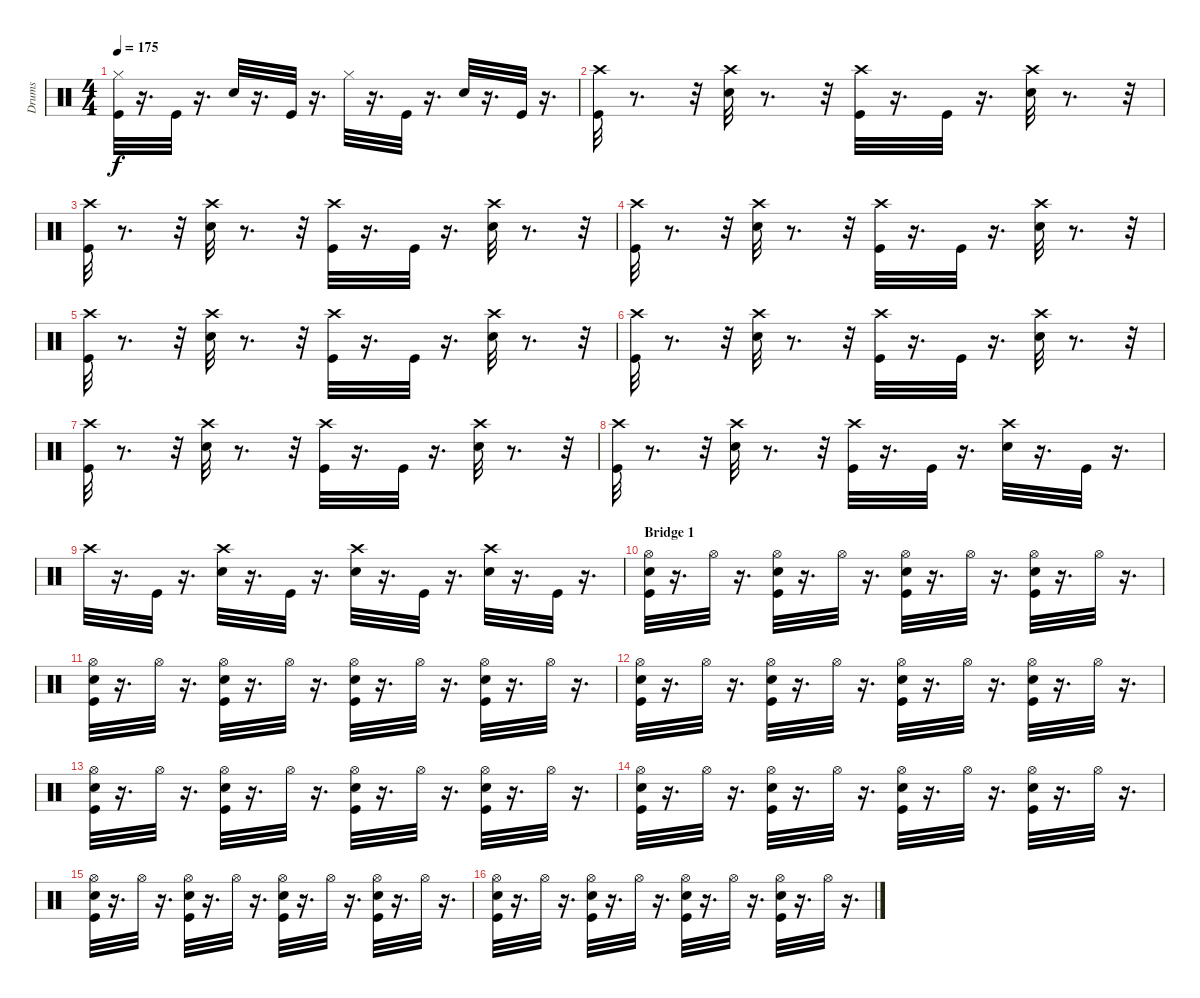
\track ("Drums" "Drums") {instrument percussion}
\staff {score}
\articulation defaults
\ts (4 4)
\tempo 175
\clef neutral
\ks c
("Hi-Hat (closed)" "Kick (hit)").32{dy f} r.16{d} "Kick (hit)".32 r.16{d} "Electric Snare (hit)".32 r.16{d} "Kick (hit)".32 r.16{d} "Hi-Hat (closed)".32 r.16{d} "Kick (hit)".32 r.16{d} "Electric Snare (hit)".32 r.16{d} "Kick (hit)".32 r.16{d} |
("Crash high (hit)" "Kick (hit)").32 r.8{d} r.32 ("Crash high (hit)" "Electric Snare (hit)").32 r.8{d} r.32 ("Crash high (hit)" "Kick (hit)").32 r.16{d} "Kick (hit)".32 r.16{d} ("Crash high (hit)" "Electric Snare (hit)").32 r.8{d} r.32 |
("Crash high (hit)" "Kick (hit)").32 r.8{d} r.32 ("Crash high (hit)" "Electric Snare (hit)").32 r.8{d} r.32 ("Crash high (hit)" "Kick (hit)").32 r.16{d} "Kick (hit)".32 r.16{d} ("Crash high (hit)" "Electric Snare (hit)").32 r.8{d} r.32 |
("Crash high (hit)" "Kick (hit)").32 r.8{d} r.32 ("Crash high (hit)" "Electric Snare (hit)").32 r.8{d} r.32 ("Crash high (hit)" "Kick (hit)").32 r.16{d} "Kick (hit)".32 r.16{d} ("Crash high (hit)" "Electric Snare (hit)").32 r.8{d} r.32 |
("Crash high (hit)" "Kick (hit)").32 r.8{d} r.32 ("Crash high (hit)" "Electric Snare (hit)").32 r.8{d} r.32 ("Crash high (hit)" "Kick (hit)").32 r.16{d} "Kick (hit)".32 r.16{d} ("Crash high (hit)" "Electric Snare (hit)").32 r.8{d} r.32 |
("Crash high (hit)" "Kick (hit)").32 r.8{d} r.32 ("Crash high (hit)" "Electric Snare (hit)").32 r.8{d} r.32 ("Crash high (hit)" "Kick (hit)").32 r.16{d} "Kick (hit)".32 r.16{d} ("Crash high (hit)" "Electric Snare (hit)").32 r.8{d} r.32 |
("Crash high (hit)" "Kick (hit)").32 r.8{d} r.32 ("Crash high (hit)" "Electric Snare (hit)").32 r.8{d} r.32 ("Crash high (hit)" "Kick (hit)").32 r.16{d} "Kick (hit)".32 r.16{d} ("Crash high (hit)" "Electric Snare (hit)").32 r.8{d} r.32 |
("Crash high (hit)" "Kick (hit)").32 r.8{d} r.32 ("Electric Snare (hit)" "Crash high (hit)").32 r.8{d} r.32 ("Kick (hit)" "Crash high (hit)").32 r.16{d} "Kick (hit)".32 r.16{d} ("Electric Snare (hit)" "Crash high (hit)").32 r.16{d} "Kick (hit)".32 r.16{d} |
"Crash high (hit)".32 r.16{d} "Kick (hit)".32 r.16{d} ("Crash high (hit)" "Electric Snare (hit)").32 r.16{d} "Kick (hit)".32 r.16{d} ("Crash high (hit)" "Electric Snare (hit)").32 r.16{d} "Kick (hit)".32 r.16{d} ("Crash high (hit)" "Electric Snare (hit)").32 r.16{d} "Kick (hit)".32 r.16{d} |
\section ("" "Bridge 1")
("Hi-Hat (open)" "Electric Snare (hit)" "Kick (hit)").32 r.16{d} "Hi-Hat (open)".32 r.16{d} ("Hi-Hat (open)" "Electric Snare (hit)" "Kick (hit)").32 r.16{d} "Hi-Hat (open)".32 r.16{d} ("Hi-Hat (open)" "Electric Snare (hit)" "Kick (hit)").32 r.16{d} "Hi-Hat (open)".32 r.16{d} ("Hi-Hat (open)" "Electric Snare (hit)" "Kick (hit)").32 r.16{d} "Hi-Hat (open)".32 r.16{d} |
("Hi-Hat (open)" "Electric Snare (hit)" "Kick (hit)").32 r.16{d} "Hi-Hat (open)".32 r.16{d} ("Hi-Hat (open)" "Electric Snare (hit)" "Kick (hit)").32 r.16{d} "Hi-Hat (open)".32 r.16{d} ("Hi-Hat (open)" "Electric Snare (hit)" "Kick (hit)").32 r.16{d} "Hi-Hat (open)".32 r.16{d} ("Hi-Hat (open)" "Electric Snare (hit)" "Kick (hit)").32 r.16{d} "Hi-Hat (open)".32 r.16{d} |
("Hi-Hat (open)" "Electric Snare (hit)" "Kick (hit)").32 r.16{d} "Hi-Hat (open)".32 r.16{d} ("Hi-Hat (open)" "Electric Snare (hit)" "Kick (hit)").32 r.16{d} "Hi-Hat (open)".32 r.16{d} ("Hi-Hat (open)" "Electric Snare (hit)" "Kick (hit)").32 r.16{d} "Hi-Hat (open)".32 r.16{d} ("Hi-Hat (open)" "Electric Snare (hit)" "Kick (hit)").32 r.16{d} "Hi-Hat (open)".32 r.16{d} |
("Hi-Hat (open)" "Electric Snare (hit)" "Kick (hit)").32 r.16{d} "Hi-Hat (open)".32 r.16{d} ("Hi-Hat (open)" "Electric Snare (hit)" "Kick (hit)").32 r.16{d} "Hi-Hat (open)".32 r.16{d} ("Hi-Hat (open)" "Electric Snare (hit)" "Kick (hit)").32 r.16{d} "Hi-Hat (open)".32 r.16{d} ("Hi-Hat (open)" "Electric Snare (hit)" "Kick (hit)").32 r.16{d} "Hi-Hat (open)".32 r.16{d} |
("Kick (hit)" "Electric Snare (hit)" "Hi-Hat (open)").32 r.16{d} "Hi-Hat (open)".32 r.16{d} ("Hi-Hat (open)" "Electric Snare (hit)" "Kick (hit)").32 r.16{d} "Hi-Hat (open)".32 r.16{d} ("Hi-Hat (open)" "Electric Snare (hit)" "Kick (hit)").32 r.16{d} "Hi-Hat (open)".32 r.16{d} ("Hi-Hat (open)" "Electric Snare (hit)" "Kick (hit)").32 r.16{d} "Hi-Hat (open)".32 r.16{d} |
("Hi-Hat (open)" "Electric Snare (hit)" "Kick (hit)").32 r.16{d} "Hi-Hat (open)".32 r.16{d} ("Hi-Hat (open)" "Electric Snare (hit)" "Kick (hit)").32 r.16{d} "Hi-Hat (open)".32 r.16{d} ("Hi-Hat (open)" "Electric Snare (hit)" "Kick (hit)").32 r.16{d} "Hi-Hat (open)".32 r.16{d} ("Hi-Hat (open)" "Electric Snare (hit)" "Kick (hit)").32 r.16{d} "Hi-Hat (open)".32 r.16{d} |
("Hi-Hat (open)" "Electric Snare (hit)" "Kick (hit)").32 r.16{d} "Hi-Hat (open)".32 r.16{d} ("Hi-Hat (open)" "Electric Snare (hit)" "Kick (hit)").32 r.16{d} "Hi-Hat (open)".32 r.16{d} ("Hi-Hat (open)" "Electric Snare (hit)" "Kick (hit)").32 r.16{d} "Hi-Hat (open)".32 r.16{d} ("Hi-Hat (open)" "Electric Snare (hit)" "Kick (hit)").32 r.16{d} "Hi-Hat (open)".32 r.16{d}
